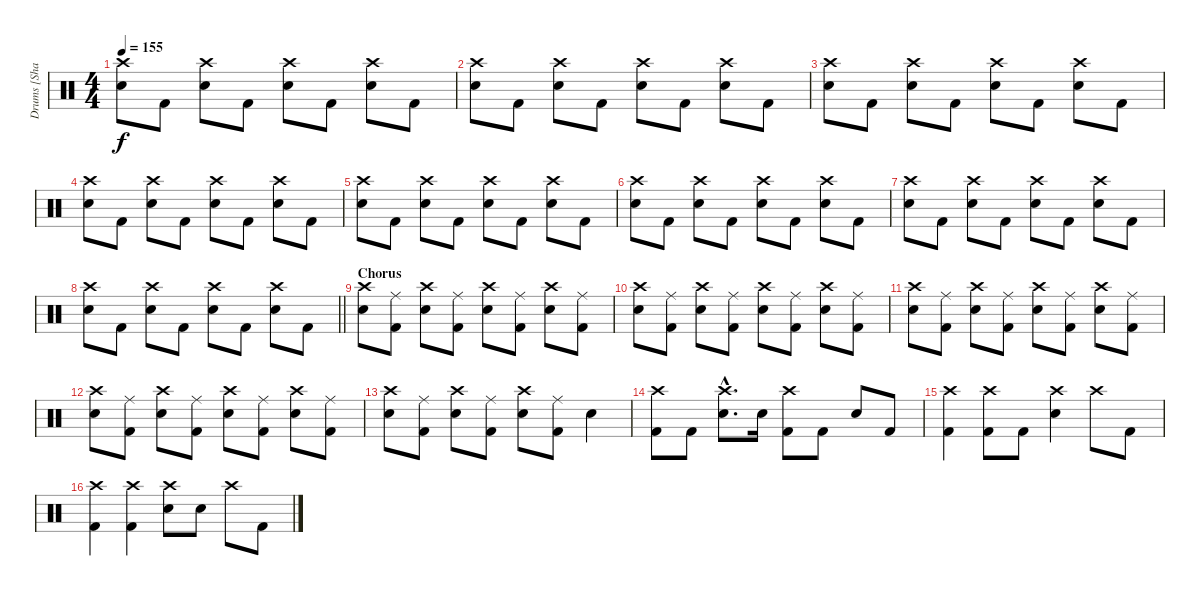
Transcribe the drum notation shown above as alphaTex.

\track ("Drums [Shannon Larkin]" "Drums [Sha") {instrument percussion}
\staff {score}
\articulation defaults
\ts (4 4)
\tempo 155
\clef neutral
\ks c
("Crash high (hit)" "Electric Snare (hit)").8{dy f} "Kick (hit) 2".8 ("Crash high (hit)" "Electric Snare (hit)").8 "Kick (hit) 2".8 ("Crash high (hit)" "Electric Snare (hit)").8 "Kick (hit) 2".8 ("Crash high (hit)" "Electric Snare (hit)").8 "Kick (hit) 2".8 |
("Crash high (hit)" "Electric Snare (hit)").8 "Kick (hit) 2".8 ("Crash high (hit)" "Electric Snare (hit)").8 "Kick (hit) 2".8 ("Crash high (hit)" "Electric Snare (hit)").8 "Kick (hit) 2".8 ("Crash high (hit)" "Electric Snare (hit)").8 "Kick (hit) 2".8 |
("Crash high (hit)" "Electric Snare (hit)").8 "Kick (hit) 2".8 ("Crash high (hit)" "Electric Snare (hit)").8 "Kick (hit) 2".8 ("Crash high (hit)" "Electric Snare (hit)").8 "Kick (hit) 2".8 ("Crash high (hit)" "Electric Snare (hit)").8 "Kick (hit) 2".8 |
("Crash high (hit)" "Electric Snare (hit)").8 "Kick (hit) 2".8 ("Crash high (hit)" "Electric Snare (hit)").8 "Kick (hit) 2".8 ("Crash high (hit)" "Electric Snare (hit)").8 "Kick (hit) 2".8 ("Crash high (hit)" "Electric Snare (hit)").8 "Kick (hit) 2".8 |
("Crash high (hit)" "Electric Snare (hit)").8 "Kick (hit) 2".8 ("Crash high (hit)" "Electric Snare (hit)").8 "Kick (hit) 2".8 ("Crash high (hit)" "Electric Snare (hit)").8 "Kick (hit) 2".8 ("Crash high (hit)" "Electric Snare (hit)").8 "Kick (hit) 2".8 |
("Crash high (hit)" "Electric Snare (hit)").8 "Kick (hit) 2".8 ("Crash high (hit)" "Electric Snare (hit)").8 "Kick (hit) 2".8 ("Crash high (hit)" "Electric Snare (hit)").8 "Kick (hit) 2".8 ("Crash high (hit)" "Electric Snare (hit)").8 "Kick (hit) 2".8 |
("Crash high (hit)" "Electric Snare (hit)").8 "Kick (hit) 2".8 ("Crash high (hit)" "Electric Snare (hit)").8 "Kick (hit) 2".8 ("Crash high (hit)" "Electric Snare (hit)").8 "Kick (hit) 2".8 ("Crash high (hit)" "Electric Snare (hit)").8 "Kick (hit) 2".8 |
\barLineRight lightlight
("Crash high (hit)" "Electric Snare (hit)").8 "Kick (hit) 2".8 ("Crash high (hit)" "Electric Snare (hit)").8 "Kick (hit) 2".8 ("Crash high (hit)" "Electric Snare (hit)").8 "Kick (hit) 2".8 ("Crash high (hit)" "Electric Snare (hit)").8 "Kick (hit) 2".8 |
\section ("" "Chorus")
("Crash high (hit)" "Electric Snare (hit)").8 ("Ride (middle)" "Kick (hit) 2").8 ("Crash high (hit)" "Electric Snare (hit)").8 ("Ride (middle)" "Kick (hit) 2").8 ("Crash high (hit)" "Electric Snare (hit)").8 ("Ride (middle)" "Kick (hit) 2").8 ("Crash high (hit)" "Electric Snare (hit)").8 ("Ride (middle)" "Kick (hit) 2").8 |
("Crash high (hit)" "Electric Snare (hit)").8 ("Ride (middle)" "Kick (hit) 2").8 ("Crash high (hit)" "Electric Snare (hit)").8 ("Ride (middle)" "Kick (hit) 2").8 ("Crash high (hit)" "Electric Snare (hit)").8 ("Ride (middle)" "Kick (hit) 2").8 ("Crash high (hit)" "Electric Snare (hit)").8 ("Ride (middle)" "Kick (hit) 2").8 |
("Crash high (hit)" "Electric Snare (hit)").8 ("Ride (middle)" "Kick (hit) 2").8 ("Crash high (hit)" "Electric Snare (hit)").8 ("Ride (middle)" "Kick (hit) 2").8 ("Crash high (hit)" "Electric Snare (hit)").8 ("Ride (middle)" "Kick (hit) 2").8 ("Crash high (hit)" "Electric Snare (hit)").8 ("Ride (middle)" "Kick (hit) 2").8 |
("Crash high (hit)" "Electric Snare (hit)").8 ("Ride (middle)" "Kick (hit) 2").8 ("Crash high (hit)" "Electric Snare (hit)").8 ("Ride (middle)" "Kick (hit) 2").8 ("Crash high (hit)" "Electric Snare (hit)").8 ("Ride (middle)" "Kick (hit) 2").8 ("Crash high (hit)" "Electric Snare (hit)").8 ("Ride (middle)" "Kick (hit) 2").8 |
("Crash high (hit)" "Electric Snare (hit)").8 ("Ride (middle)" "Kick (hit) 2").8 ("Crash high (hit)" "Electric Snare (hit)").8 ("Ride (middle)" "Kick (hit) 2").8 ("Crash high (hit)" "Electric Snare (hit)").8 ("Ride (middle)" "Kick (hit) 2").8 "Electric Snare (hit)".4 |
("Crash high (hit)" "Kick (hit) 2").8 "Kick (hit) 2".8 ("Crash high (hit)"{hac} "Electric Snare (hit)"{hac}).8{d} "Electric Snare (hit)".16 ("Crash high (hit)" "Kick (hit) 2").8 "Kick (hit) 2".8 "Electric Snare (hit)".8 "Kick (hit) 2".8 |
("Crash high (hit)" "Kick (hit) 2").4 ("Crash high (hit)" "Kick (hit) 2").8 "Kick (hit) 2".8 ("Crash high (hit)" "Electric Snare (hit)").4 "Crash high (hit)".8 "Kick (hit) 2".8 |
("Crash high (hit)" "Kick (hit) 2").4 ("Crash high (hit)" "Kick (hit) 2").4 ("Crash high (hit)" "Electric Snare (hit)").8 "Electric Snare (hit)".8 "Crash high (hit)".8 "Kick (hit) 2".8
